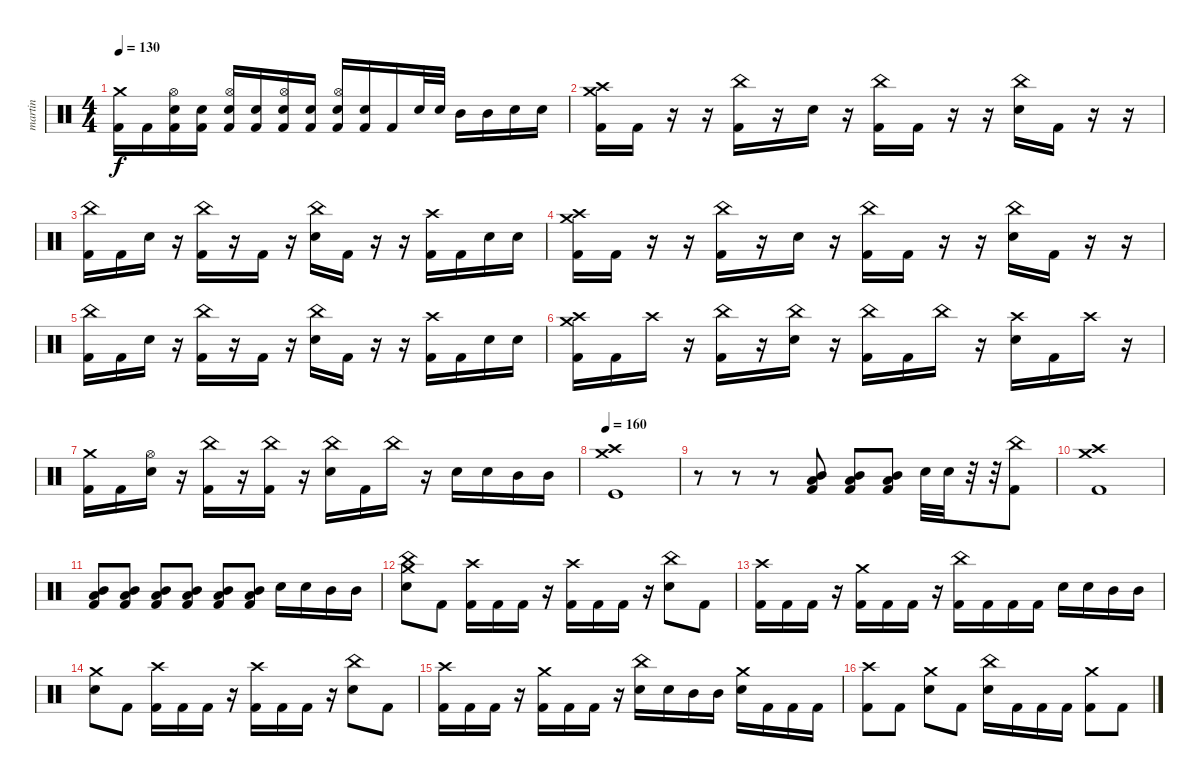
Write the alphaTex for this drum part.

\track ("martin" "martin") {instrument percussion}
\staff {score}
\articulation defaults
\ts (4 4)
\tempo 130
\clef neutral
\ks c
("Crash medium (hit)" "Kick (hit) 2").16{dy f} "Kick (hit) 2".16 ("Hi-Hat (open)" "Electric Snare (hit)" "Kick (hit) 2").16 ("Electric Snare (hit)" "Kick (hit) 2").16 ("Hi-Hat (open)" "Electric Snare (hit)" "Kick (hit) 2").16 ("Electric Snare (hit)" "Kick (hit) 2").16 ("Hi-Hat (open)" "Electric Snare (hit)" "Kick (hit) 2").16 ("Electric Snare (hit)" "Kick (hit) 2").16 ("Hi-Hat (open)" "Electric Snare (hit)" "Kick (hit) 2").16 ("Electric Snare (hit)" "Kick (hit) 2").16 "Kick (hit) 2".16 "Electric Snare (hit)".32 "Electric Snare (hit)".32 "Mid Tom (hit)".16 "Mid Tom (hit)".16 "Electric Snare (hit)".16 "Electric Snare (hit)".16 |
("Crash high (hit)" "Crash medium (hit)" "Kick (hit) 2").16 "Kick (hit) 2".16 r.16 r.16 ("China (hit)" "Kick (hit) 2").16 r.16 "Electric Snare (hit)".16 r.16 ("China (hit)" "Kick (hit) 2").16 "Kick (hit) 2".16 r.16 r.16 ("China (hit)" "Electric Snare (hit)").16 "Kick (hit) 2".16 r.16 r.16 |
("China (hit)" "Kick (hit) 2").16 "Kick (hit) 2".16 "Electric Snare (hit)".16 r.16 ("China (hit)" "Kick (hit) 2").16 r.16 "Kick (hit) 2".16 r.16 ("China (hit)" "Electric Snare (hit)").16 "Kick (hit) 2".16 r.16 r.16 ("Crash high (hit)" "Kick (hit) 2").16 "Kick (hit) 2".16 "Electric Snare (hit)".16 "Electric Snare (hit)".16 |
("Crash high (hit)" "Crash medium (hit)" "Kick (hit) 2").16 "Kick (hit) 2".16 r.16 r.16 ("China (hit)" "Kick (hit) 2").16 r.16 "Electric Snare (hit)".16 r.16 ("China (hit)" "Kick (hit) 2").16 "Kick (hit) 2".16 r.16 r.16 ("China (hit)" "Electric Snare (hit)").16 "Kick (hit) 2".16 r.16 r.16 |
("China (hit)" "Kick (hit) 2").16 "Kick (hit) 2".16 "Electric Snare (hit)".16 r.16 ("China (hit)" "Kick (hit) 2").16 r.16 "Kick (hit) 2".16 r.16 ("China (hit)" "Electric Snare (hit)").16 "Kick (hit) 2".16 r.16 r.16 ("Crash high (hit)" "Kick (hit) 2").16 "Kick (hit) 2".16 "Electric Snare (hit)".16 "Electric Snare (hit)".16 |
("Crash high (hit)" "Crash medium (hit)" "Kick (hit) 2").16 "Kick (hit) 2".16 "Crash high (hit)".16 r.16 ("China (hit)" "Kick (hit) 2").16 r.16 ("China (hit)" "Electric Snare (hit)").16 r.16 ("China (hit)" "Kick (hit) 2").16 "Kick (hit) 2".16 "China (hit)".16 r.16 ("Crash high (hit)" "Electric Snare (hit)").16 "Kick (hit) 2".16 "Crash high (hit)".16 r.16 |
("Crash medium (hit)" "Kick (hit) 2").16 "Kick (hit) 2".16 ("Hi-Hat (open)" "Electric Snare (hit)").16 r.16 ("China (hit)" "Kick (hit) 2").16 r.16 ("China (hit)" "Kick (hit) 2").16 r.16 ("China (hit)" "Electric Snare (hit)").16 "Kick (hit) 2".16 "China (hit)".16 r.16 "Electric Snare (hit)".16 "Electric Snare (hit)".16 "Mid Tom (hit)".16 "Mid Tom (hit)".16 |
\tempo 160
("Crash high (hit)" "Crash medium (hit)" "Kick (hit)").1 |
r.8 r.8 r.8 ("Low Tom (hit)" "Mid Tom (hit)" "Kick (hit) 2").8{volume 8} ("Low Tom (hit)" "Mid Tom (hit)" "Kick (hit) 2").8{volume 10} ("Low Tom (hit)" "Mid Tom (hit)" "Kick (hit) 2").8{volume 11} "Electric Snare (hit)".32{volume 16} "Electric Snare (hit)".32 r.32 r.32 ("China (hit)" "Kick (hit) 2").8 |
("Crash high (hit)" "Crash medium (hit)" "Kick (hit) 2").1 |
("Mid Tom (hit)" "Low Tom (hit)" "Kick (hit) 2").8{volume 8} ("Mid Tom (hit)" "Low Tom (hit)" "Kick (hit) 2").8{volume 9} ("Mid Tom (hit)" "Low Tom (hit)" "Kick (hit) 2").8{volume 10} ("Mid Tom (hit)" "Low Tom (hit)" "Kick (hit) 2").8{volume 11} ("Mid Tom (hit)" "Low Tom (hit)" "Kick (hit) 2").8{volume 13} ("Mid Tom (hit)" "Low Tom (hit)" "Kick (hit) 2").8{volume 14} "Electric Snare (hit)".16{volume 16} "Electric Snare (hit)".16 "Mid Tom (hit)".16 "Mid Tom (hit)".16 |
("Crash medium (hit)" "China (hit)" "Electric Snare (hit)").8 "Kick (hit) 2".8 ("Crash high (hit)" "Kick (hit) 2").16 "Kick (hit) 2".16 "Kick (hit) 2".16 r.16 ("Crash high (hit)" "Kick (hit) 2").16 "Kick (hit) 2".16 "Kick (hit) 2".16 r.16 ("China (hit)" "Electric Snare (hit)").8 "Kick (hit) 2".8 |
("Crash high (hit)" "Kick (hit) 2").16 "Kick (hit) 2".16 "Kick (hit) 2".16 r.16 ("Crash medium (hit)" "Kick (hit) 2").16 "Kick (hit) 2".16 "Kick (hit) 2".16 r.16 ("China (hit)" "Kick (hit) 2").16 "Kick (hit) 2".16 "Kick (hit) 2".16 "Kick (hit) 2".16 "Electric Snare (hit)".16 "Electric Snare (hit)".16 "Mid Tom (hit)".16 "Mid Tom (hit)".16 |
("Crash medium (hit)" "Electric Snare (hit)").8 "Kick (hit) 2".8 ("Crash high (hit)" "Kick (hit) 2").16 "Kick (hit) 2".16 "Kick (hit) 2".16 r.16 ("Crash high (hit)" "Kick (hit) 2").16 "Kick (hit) 2".16 "Kick (hit) 2".16 r.16 ("China (hit)" "Electric Snare (hit)").8 "Kick (hit) 2".8 |
("Crash high (hit)" "Kick (hit) 2").16 "Kick (hit) 2".16 "Kick (hit) 2".16 r.16 ("Crash medium (hit)" "Kick (hit) 2").16 "Kick (hit) 2".16 "Kick (hit) 2".16 r.16 ("China (hit)" "Electric Snare (hit)").16 "Electric Snare (hit)".16 "Mid Tom (hit)".16 "Mid Tom (hit)".16 ("Crash medium (hit)" "Electric Snare (hit)").16 "Kick (hit) 2".16 "Kick (hit) 2".16 "Kick (hit) 2".16 |
("Crash high (hit)" "Kick (hit) 2").8 "Kick (hit) 2".8 ("Crash medium (hit)" "Electric Snare (hit)").8 "Kick (hit) 2".8 ("China (hit)" "Electric Snare (hit)").16 "Kick (hit) 2".16 "Kick (hit) 2".16 "Kick (hit) 2".16 ("Crash medium (hit)" "Kick (hit) 2").8 "Kick (hit) 2".8
